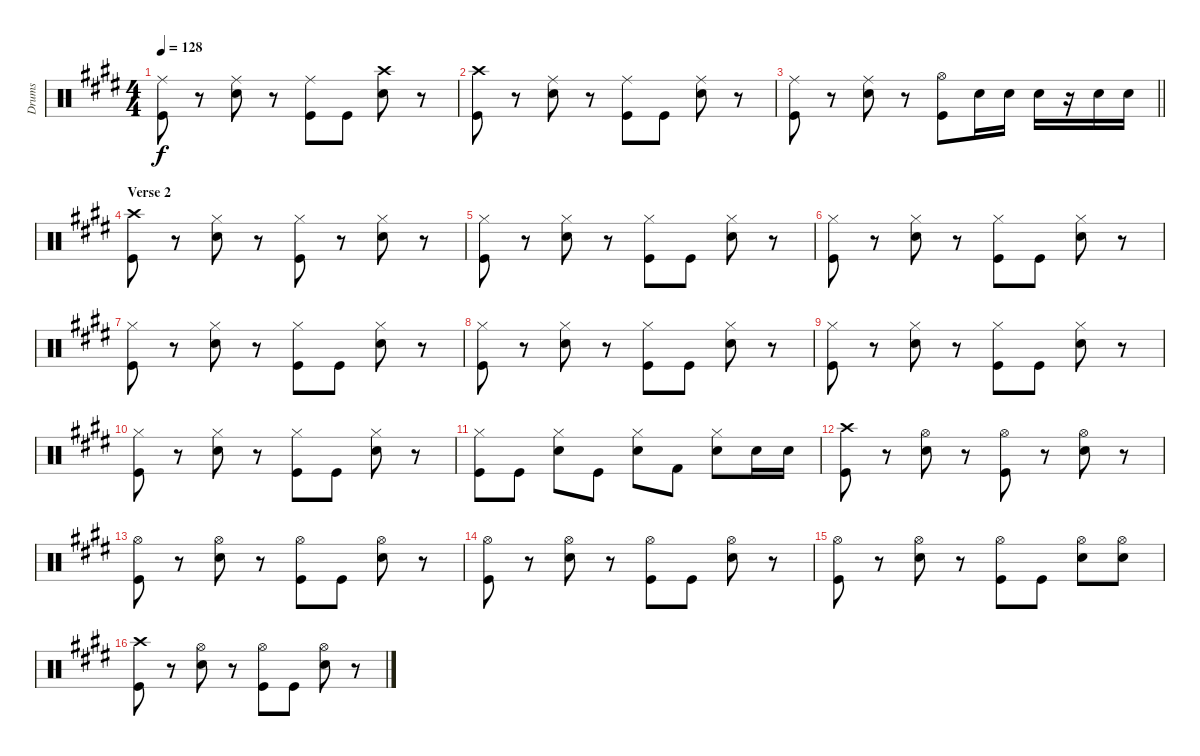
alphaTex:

\track ("Drums" "Drums") {instrument percussion}
\staff {score}
\articulation defaults
\ts (4 4)
\tempo 128
\clef neutral
\ks e
("Ride (middle)" "Kick (hit)").8{dy f} r.8 ("Ride (middle)" "Snare (hit) 2").8 r.8 ("Ride (middle)" "Kick (hit)").8 "Kick (hit)".8 ("Crash high (hit)" "Snare (hit) 2").8 r.8 |
("Crash high (hit)" "Kick (hit)").8 r.8 ("Ride (middle)" "Snare (hit) 2").8 r.8 ("Ride (middle)" "Kick (hit)").8 "Kick (hit)".8 ("Ride (middle)" "Snare (hit) 2").8 r.8 |
\barLineRight lightlight
("Ride (middle)" "Kick (hit)").8 r.8 ("Ride (middle)" "Snare (hit) 2").8 r.8 ("Hi-Hat (open)" "Kick (hit)").8 "Snare (hit) 2".16 "Snare (hit) 2".16 "Snare (hit) 2".16 r.16 "Snare (hit) 2".16 "Snare (hit) 2".16 |
\section ("" "Verse 2")
("Crash high (hit)" "Kick (hit)").8 r.8 ("Hi-Hat (closed)" "Snare (hit) 2").8 r.8 ("Hi-Hat (closed)" "Kick (hit)").8 r.8 ("Hi-Hat (closed)" "Snare (hit) 2").8 r.8 |
("Hi-Hat (closed)" "Kick (hit)").8 r.8 ("Hi-Hat (closed)" "Snare (hit) 2").8 r.8 ("Hi-Hat (closed)" "Kick (hit)").8 "Kick (hit)".8 ("Hi-Hat (closed)" "Snare (hit) 2").8 r.8 |
("Hi-Hat (closed)" "Kick (hit)").8 r.8 ("Hi-Hat (closed)" "Snare (hit) 2").8 r.8 ("Hi-Hat (closed)" "Kick (hit)").8 "Kick (hit)".8 ("Hi-Hat (closed)" "Snare (hit) 2").8 r.8 |
("Hi-Hat (closed)" "Kick (hit)").8 r.8 ("Hi-Hat (closed)" "Snare (hit) 2").8 r.8 ("Hi-Hat (closed)" "Kick (hit)").8 "Kick (hit)".8 ("Hi-Hat (closed)" "Snare (hit) 2").8 r.8 |
("Hi-Hat (closed)" "Kick (hit)").8 r.8 ("Hi-Hat (closed)" "Snare (hit) 2").8 r.8 ("Hi-Hat (closed)" "Kick (hit)").8 "Kick (hit)".8 ("Hi-Hat (closed)" "Snare (hit) 2").8 r.8 |
("Hi-Hat (closed)" "Kick (hit)").8 r.8 ("Hi-Hat (closed)" "Snare (hit) 2").8 r.8 ("Hi-Hat (closed)" "Kick (hit)").8 "Kick (hit)".8 ("Hi-Hat (closed)" "Snare (hit) 2").8 r.8 |
("Hi-Hat (closed)" "Kick (hit)").8 r.8 ("Hi-Hat (closed)" "Snare (hit) 2").8 r.8 ("Hi-Hat (closed)" "Kick (hit)").8 "Kick (hit)".8 ("Hi-Hat (closed)" "Snare (hit) 2").8 r.8 |
("Hi-Hat (closed)" "Kick (hit)").8 "Kick (hit)".8 ("Hi-Hat (closed)" "Snare (hit) 2").8 "Kick (hit)".8 ("Hi-Hat (closed)" "Snare (hit) 2").8 "Kick (hit) 2".8 ("Hi-Hat (closed)" "Snare (hit) 2").8 "Snare (hit) 2".16 "Snare (hit) 2".16 |
("Crash high (hit)" "Kick (hit)").8 r.8 ("Hi-Hat (open)" "Snare (hit) 2").8 r.8 ("Hi-Hat (open)" "Kick (hit)").8 r.8 ("Hi-Hat (open)" "Snare (hit) 2").8 r.8 |
("Hi-Hat (open)" "Kick (hit)").8 r.8 ("Hi-Hat (open)" "Snare (hit) 2").8 r.8 ("Hi-Hat (open)" "Kick (hit)").8 "Kick (hit)".8 ("Hi-Hat (open)" "Snare (hit) 2").8 r.8 |
("Hi-Hat (open)" "Kick (hit)").8 r.8 ("Hi-Hat (open)" "Snare (hit) 2").8 r.8 ("Hi-Hat (open)" "Kick (hit)").8 "Kick (hit)".8 ("Hi-Hat (open)" "Snare (hit) 2").8 r.8 |
("Hi-Hat (open)" "Kick (hit)").8 r.8 ("Hi-Hat (open)" "Snare (hit) 2").8 r.8 ("Hi-Hat (open)" "Kick (hit)").8 "Kick (hit)".8 ("Hi-Hat (open)" "Snare (hit) 2").8 ("Hi-Hat (open)" "Snare (hit) 2").8 |
("Crash high (hit)" "Kick (hit)").8 r.8 ("Hi-Hat (open)" "Snare (hit) 2").8 r.8 ("Hi-Hat (open)" "Kick (hit)").8 "Kick (hit)".8 ("Hi-Hat (open)" "Snare (hit) 2").8 r.8
